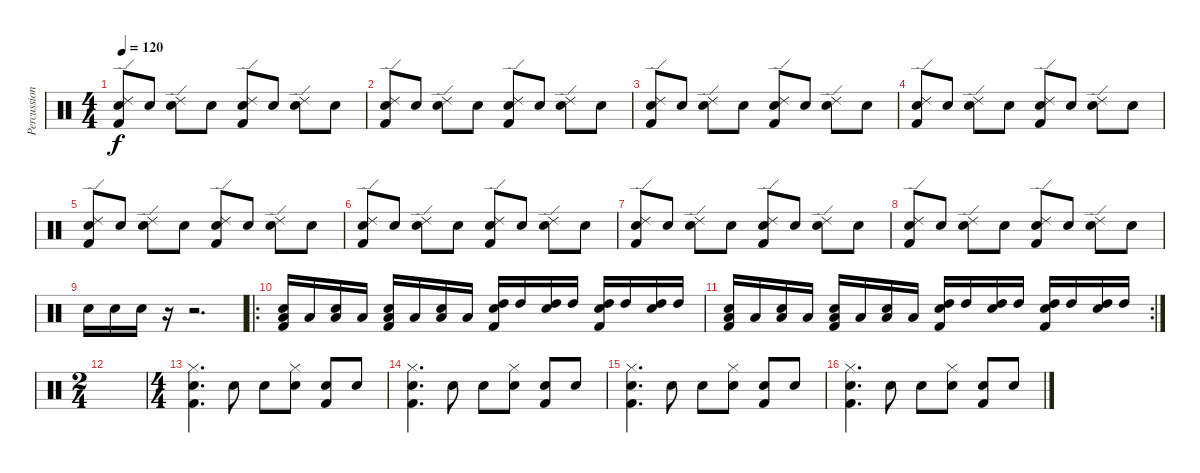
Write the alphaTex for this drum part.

\track ("Percussions" "Percussion") {instrument percussion}
\staff {score}
\articulation defaults
\ts (4 4)
\tempo 120
\clef neutral
\ks c
("Kick (hit) 2" "Ride (edge) 2" "Electric Snare (hit)").8{dy f} "Electric Snare (hit)".8 ("Ride (edge) 2" "Electric Snare (hit)").8 "Electric Snare (hit)".8 ("Kick (hit) 2" "Ride (edge) 2" "Electric Snare (hit)").8 "Electric Snare (hit)".8 ("Ride (edge) 2" "Electric Snare (hit)").8 "Electric Snare (hit)".8 |
("Kick (hit) 2" "Ride (edge) 2" "Electric Snare (hit)").8 "Electric Snare (hit)".8 ("Ride (edge) 2" "Electric Snare (hit)").8 "Electric Snare (hit)".8 ("Kick (hit) 2" "Ride (edge) 2" "Electric Snare (hit)").8 "Electric Snare (hit)".8 ("Ride (edge) 2" "Electric Snare (hit)").8 "Electric Snare (hit)".8 |
("Kick (hit) 2" "Ride (edge) 2" "Electric Snare (hit)").8 "Electric Snare (hit)".8 ("Ride (edge) 2" "Electric Snare (hit)").8 "Electric Snare (hit)".8 ("Kick (hit) 2" "Ride (edge) 2" "Electric Snare (hit)").8 "Electric Snare (hit)".8 ("Ride (edge) 2" "Electric Snare (hit)").8 "Electric Snare (hit)".8 |
("Kick (hit) 2" "Ride (edge) 2" "Electric Snare (hit)").8 "Electric Snare (hit)".8 ("Ride (edge) 2" "Electric Snare (hit)").8 "Electric Snare (hit)".8 ("Kick (hit) 2" "Ride (edge) 2" "Electric Snare (hit)").8 "Electric Snare (hit)".8 ("Ride (edge) 2" "Electric Snare (hit)").8 "Electric Snare (hit)".8 |
("Kick (hit) 2" "Ride (edge) 2" "Electric Snare (hit)").8 "Electric Snare (hit)".8 ("Ride (edge) 2" "Electric Snare (hit)").8 "Electric Snare (hit)".8 ("Kick (hit) 2" "Ride (edge) 2" "Electric Snare (hit)").8 "Electric Snare (hit)".8 ("Ride (edge) 2" "Electric Snare (hit)").8 "Electric Snare (hit)".8 |
("Kick (hit) 2" "Ride (edge) 2" "Electric Snare (hit)").8 "Electric Snare (hit)".8 ("Ride (edge) 2" "Electric Snare (hit)").8 "Electric Snare (hit)".8 ("Kick (hit) 2" "Ride (edge) 2" "Electric Snare (hit)").8 "Electric Snare (hit)".8 ("Ride (edge) 2" "Electric Snare (hit)").8 "Electric Snare (hit)".8 |
("Kick (hit) 2" "Ride (edge) 2" "Electric Snare (hit)").8 "Electric Snare (hit)".8 ("Ride (edge) 2" "Electric Snare (hit)").8 "Electric Snare (hit)".8 ("Kick (hit) 2" "Ride (edge) 2" "Electric Snare (hit)").8 "Electric Snare (hit)".8 ("Ride (edge) 2" "Electric Snare (hit)").8 "Electric Snare (hit)".8 |
("Kick (hit) 2" "Ride (edge) 2" "Electric Snare (hit)").8 "Electric Snare (hit)".8 ("Ride (edge) 2" "Electric Snare (hit)").8 "Electric Snare (hit)".8 ("Kick (hit) 2" "Ride (edge) 2" "Electric Snare (hit)").8 "Electric Snare (hit)".8 ("Ride (edge) 2" "Electric Snare (hit)").8 "Electric Snare (hit)".8 |
"Electric Snare (hit)".16 "Electric Snare (hit)".16 "Electric Snare (hit)".16 r.16 r.2{d} |
\ro
("Kick (hit) 2" "Electric Snare (hit)" "Low Tom (hit)").16 "Low Tom (hit)".16 ("Electric Snare (hit)" "Low Tom (hit)").16 "Low Tom (hit)".16 ("Kick (hit) 2" "Electric Snare (hit)" "Low Tom (hit)").16 "Low Tom (hit)".16 ("Electric Snare (hit)" "Low Tom (hit)").16 "Low Tom (hit)".16 ("Kick (hit) 2" "Electric Snare (hit)" "High Tom (hit)").16 "High Tom (hit)".16 ("Electric Snare (hit)" "High Tom (hit)").16 "High Tom (hit)".16 ("Kick (hit) 2" "Electric Snare (hit)" "High Tom (hit)").16 "High Tom (hit)".16 ("Electric Snare (hit)" "High Tom (hit)").16 "High Tom (hit)".16 |
\rc 2
("Kick (hit) 2" "Electric Snare (hit)" "Low Tom (hit)").16 "Low Tom (hit)".16 ("Electric Snare (hit)" "Low Tom (hit)").16 "Low Tom (hit)".16 ("Kick (hit) 2" "Electric Snare (hit)" "Low Tom (hit)").16 "Low Tom (hit)".16 ("Electric Snare (hit)" "Low Tom (hit)").16 "Low Tom (hit)".16 ("Kick (hit) 2" "Electric Snare (hit)" "High Tom (hit)").16 "High Tom (hit)".16 ("Electric Snare (hit)" "High Tom (hit)").16 "High Tom (hit)".16 ("Kick (hit) 2" "Electric Snare (hit)" "High Tom (hit)").16 "High Tom (hit)".16 ("Electric Snare (hit)" "High Tom (hit)").16 "High Tom (hit)".16 |
\ts (2 4)
|
\ts (4 4)
("Kick (hit) 2" "Electric Snare (hit)" "Hi-Hat (closed)").4{d volume 10} "Electric Snare (hit)".8 "Electric Snare (hit)".8 ("Electric Snare (hit)" "Hi-Hat (closed)").8 ("Kick (hit) 2" "Electric Snare (hit)").8 "Electric Snare (hit)".8 |
("Kick (hit) 2" "Electric Snare (hit)" "Hi-Hat (closed)").4{d} "Electric Snare (hit)".8 "Electric Snare (hit)".8 ("Electric Snare (hit)" "Hi-Hat (closed)").8 ("Kick (hit) 2" "Electric Snare (hit)").8 "Electric Snare (hit)".8 |
("Kick (hit) 2" "Electric Snare (hit)" "Hi-Hat (closed)").4{d} "Electric Snare (hit)".8 "Electric Snare (hit)".8 ("Electric Snare (hit)" "Hi-Hat (closed)").8 ("Kick (hit) 2" "Electric Snare (hit)").8 "Electric Snare (hit)".8 |
("Kick (hit) 2" "Electric Snare (hit)" "Hi-Hat (closed)").4{d} "Electric Snare (hit)".8 "Electric Snare (hit)".8 ("Electric Snare (hit)" "Hi-Hat (closed)").8 ("Kick (hit) 2" "Electric Snare (hit)").8 "Electric Snare (hit)".8
